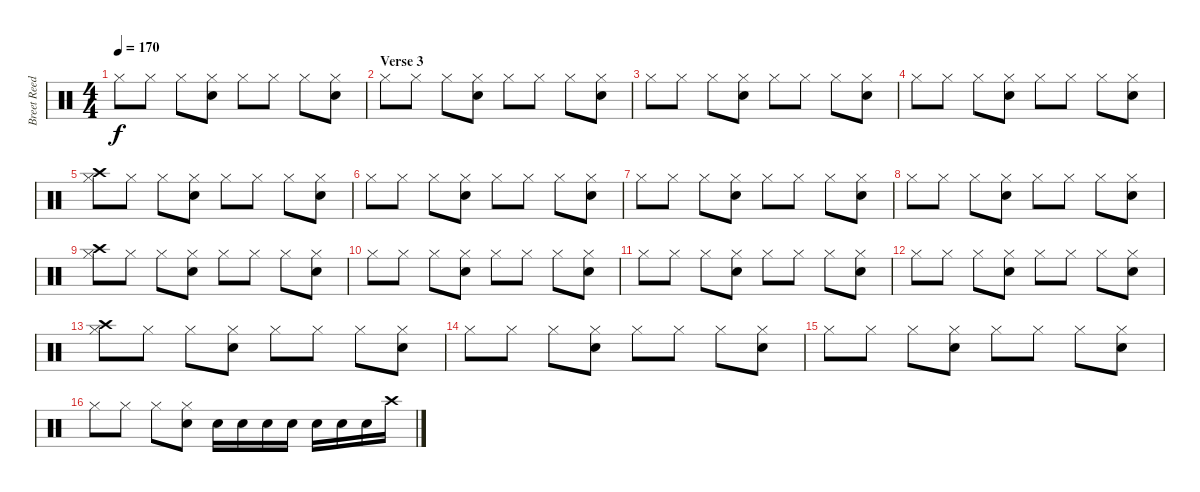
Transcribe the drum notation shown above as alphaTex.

\track ("Breet Reed" "Breet Reed") {instrument percussion}
\staff {score}
\articulation defaults
\ts (4 4)
\tempo 170
\clef neutral
\ks c "Hi-Hat (closed)".8{dy f} "Hi-Hat (closed)".8 "Hi-Hat (closed)".8
("Snare (hit) 2" "Hi-Hat (closed)").8 "Hi-Hat (closed)".8 "Hi-Hat (closed)".8 "Hi-Hat (closed)".8 ("Snare (hit) 2" "Hi-Hat (closed)").8 |
\section ("" "Verse 3")
"Hi-Hat (closed)".8 "Hi-Hat (closed)".8 "Hi-Hat (closed)".8 ("Snare (hit) 2" "Hi-Hat (closed)").8 "Hi-Hat (closed)".8 "Hi-Hat (closed)".8 "Hi-Hat (closed)".8 ("Snare (hit) 2" "Hi-Hat (closed)").8 |
"Hi-Hat (closed)".8 "Hi-Hat (closed)".8 "Hi-Hat (closed)".8 ("Snare (hit) 2" "Hi-Hat (closed)").8 "Hi-Hat (closed)".8 "Hi-Hat (closed)".8 "Hi-Hat (closed)".8 ("Snare (hit) 2" "Hi-Hat (closed)").8 |
"Hi-Hat (closed)".8 "Hi-Hat (closed)".8 "Hi-Hat (closed)".8 ("Snare (hit) 2" "Hi-Hat (closed)").8 "Hi-Hat (closed)".8 "Hi-Hat (closed)".8 "Hi-Hat (closed)".8 ("Snare (hit) 2" "Hi-Hat (closed)").8 |
("Crash high (hit)" "Hi-Hat (closed)").8 "Hi-Hat (closed)".8 "Hi-Hat (closed)".8 ("Snare (hit) 2" "Hi-Hat (closed)").8 "Hi-Hat (closed)".8 "Hi-Hat (closed)".8 "Hi-Hat (closed)".8 ("Snare (hit) 2" "Hi-Hat (closed)").8 |
"Hi-Hat (closed)".8 "Hi-Hat (closed)".8 "Hi-Hat (closed)".8 ("Snare (hit) 2" "Hi-Hat (closed)").8 "Hi-Hat (closed)".8 "Hi-Hat (closed)".8 "Hi-Hat (closed)".8 ("Snare (hit) 2" "Hi-Hat (closed)").8 |
"Hi-Hat (closed)".8 "Hi-Hat (closed)".8 "Hi-Hat (closed)".8 ("Snare (hit) 2" "Hi-Hat (closed)").8 "Hi-Hat (closed)".8 "Hi-Hat (closed)".8 "Hi-Hat (closed)".8 ("Snare (hit) 2" "Hi-Hat (closed)").8 |
"Hi-Hat (closed)".8 "Hi-Hat (closed)".8 "Hi-Hat (closed)".8 ("Snare (hit) 2" "Hi-Hat (closed)").8 "Hi-Hat (closed)".8 "Hi-Hat (closed)".8 "Hi-Hat (closed)".8 ("Snare (hit) 2" "Hi-Hat (closed)").8 |
("Crash high (hit)" "Hi-Hat (closed)").8 "Hi-Hat (closed)".8 "Hi-Hat (closed)".8 ("Snare (hit) 2" "Hi-Hat (closed)").8 "Hi-Hat (closed)".8 "Hi-Hat (closed)".8 "Hi-Hat (closed)".8 ("Snare (hit) 2" "Hi-Hat (closed)").8 |
"Hi-Hat (closed)".8 "Hi-Hat (closed)".8 "Hi-Hat (closed)".8 ("Snare (hit) 2" "Hi-Hat (closed)").8 "Hi-Hat (closed)".8 "Hi-Hat (closed)".8 "Hi-Hat (closed)".8 ("Snare (hit) 2" "Hi-Hat (closed)").8 |
"Hi-Hat (closed)".8 "Hi-Hat (closed)".8 "Hi-Hat (closed)".8 ("Snare (hit) 2" "Hi-Hat (closed)").8 "Hi-Hat (closed)".8 "Hi-Hat (closed)".8 "Hi-Hat (closed)".8 ("Snare (hit) 2" "Hi-Hat (closed)").8 |
"Hi-Hat (closed)".8 "Hi-Hat (closed)".8 "Hi-Hat (closed)".8 ("Snare (hit) 2" "Hi-Hat (closed)").8 "Hi-Hat (closed)".8 "Hi-Hat (closed)".8 "Hi-Hat (closed)".8 ("Snare (hit) 2" "Hi-Hat (closed)").8 |
("Crash high (hit)" "Hi-Hat (closed)").8 "Hi-Hat (closed)".8 "Hi-Hat (closed)".8 ("Snare (hit) 2" "Hi-Hat (closed)").8 "Hi-Hat (closed)".8 "Hi-Hat (closed)".8 "Hi-Hat (closed)".8 ("Snare (hit) 2" "Hi-Hat (closed)").8 |
"Hi-Hat (closed)".8 "Hi-Hat (closed)".8 "Hi-Hat (closed)".8 ("Snare (hit) 2" "Hi-Hat (closed)").8 "Hi-Hat (closed)".8 "Hi-Hat (closed)".8 "Hi-Hat (closed)".8 ("Snare (hit) 2" "Hi-Hat (closed)").8 |
"Hi-Hat (closed)".8 "Hi-Hat (closed)".8 "Hi-Hat (closed)".8 ("Snare (hit) 2" "Hi-Hat (closed)").8 "Hi-Hat (closed)".8 "Hi-Hat (closed)".8 "Hi-Hat (closed)".8 ("Snare (hit) 2" "Hi-Hat (closed)").8 |
"Hi-Hat (closed)".8 "Hi-Hat (closed)".8 "Hi-Hat (closed)".8 ("Snare (hit) 2" "Hi-Hat (closed)").8 "Snare (hit) 2".16 "Snare (hit) 2".16 "Snare (hit) 2".16 "Snare (hit) 2".16 "Snare (hit) 2".16 "Snare (hit) 2".16 "Snare (hit) 2".16 "Crash high (hit)".16
